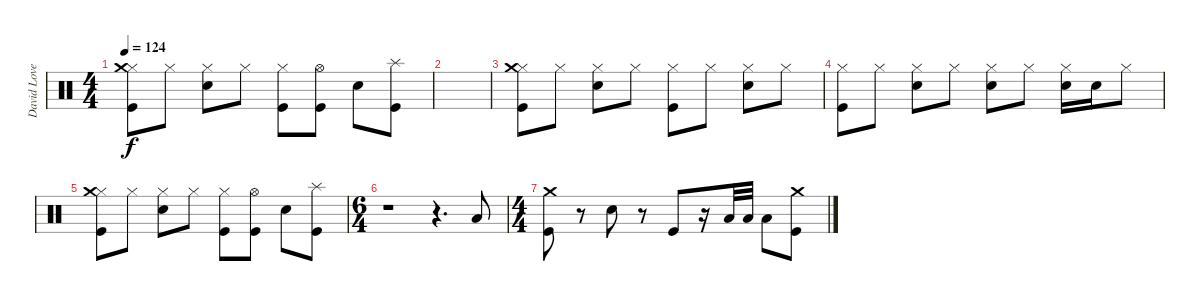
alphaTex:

\track ("David Lovering" "David Love") {instrument percussion}
\staff {score}
\articulation defaults
\ts (4 4)
\tempo 124
\clef neutral
\ks c
("Hi-Hat (closed)" "Crash medium (hit)" "Kick (hit)").8{dy f} "Hi-Hat (closed)".8 ("Hi-Hat (closed)" "Snare (hit) 2").8 "Hi-Hat (closed)".8 ("Hi-Hat (closed)" "Kick (hit)").8 ("Hi-Hat (open)" "Kick (hit)").8 "Snare (hit) 2".8 ("Splash (hit)" "Kick (hit)").8 |
|
("Hi-Hat (closed)" "Crash medium (hit)" "Kick (hit)").8 "Hi-Hat (closed)".8 ("Hi-Hat (closed)" "Snare (hit) 2").8 "Hi-Hat (closed)".8 ("Hi-Hat (closed)" "Kick (hit)").8 "Hi-Hat (closed)".8 ("Hi-Hat (closed)" "Snare (hit) 2").8 "Hi-Hat (closed)".8 |
("Hi-Hat (closed)" "Kick (hit)").8 "Hi-Hat (closed)".8 ("Hi-Hat (closed)" "Snare (hit) 2").8 "Hi-Hat (closed)".8 ("Hi-Hat (closed)" "Snare (hit) 2").8 "Hi-Hat (closed)".8 ("Hi-Hat (closed)" "Snare (hit) 2").16 "Snare (hit) 2".16 "Hi-Hat (closed)".8 |
("Hi-Hat (closed)" "Crash medium (hit)" "Kick (hit)").8 "Hi-Hat (closed)".8 ("Hi-Hat (closed)" "Snare (hit) 2").8 "Hi-Hat (closed)".8 ("Hi-Hat (closed)" "Kick (hit)").8 ("Hi-Hat (open)" "Kick (hit)").8 "Snare (hit) 2".8 ("Splash (hit)" "Kick (hit)").8 |
\ts (6 4)
r.1 r.4{d} "Low Tom (hit)".8 |
\ts (4 4)
("Crash medium (hit)" "Kick (hit)").8 r.8 "Snare (hit) 2".8 r.8 "Kick (hit)".8 r.16 "Low Tom (hit)".32 "Low Tom (hit)".32 "Low Tom (hit)".8 ("Crash medium (hit)" "Kick (hit)").8
